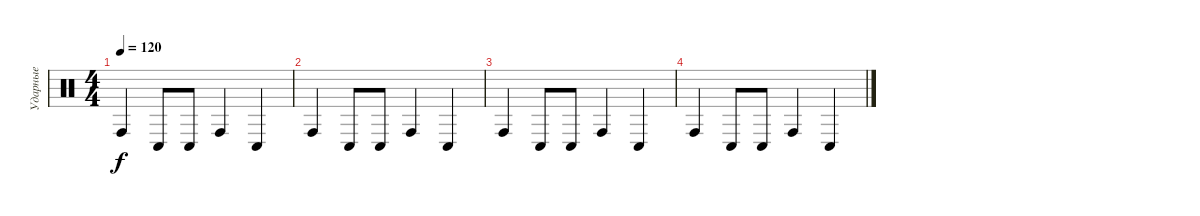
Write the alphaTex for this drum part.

\track ("Ударные" "Ударные") {instrument percussion}
\staff {score}
\articulation defaults
\ts (4 4)
\tempo 120
\clef neutral
\ks c "Conga high (hit)".4{dy f} "Conga low (hit)".8 "Conga low (hit)".8 "Conga high (hit)".4 "Conga low (hit)".4
|
"Conga high (hit)".4 "Conga low (hit)".8 "Conga low (hit)".8 "Conga high (hit)".4 "Conga low (hit)".4 |
"Conga high (hit)".4 "Conga low (hit)".8 "Conga low (hit)".8 "Conga high (hit)".4 "Conga low (hit)".4 |
"Conga high (hit)".4 "Conga low (hit)".8 "Conga low (hit)".8 "Conga high (hit)".4 "Conga low (hit)".4
